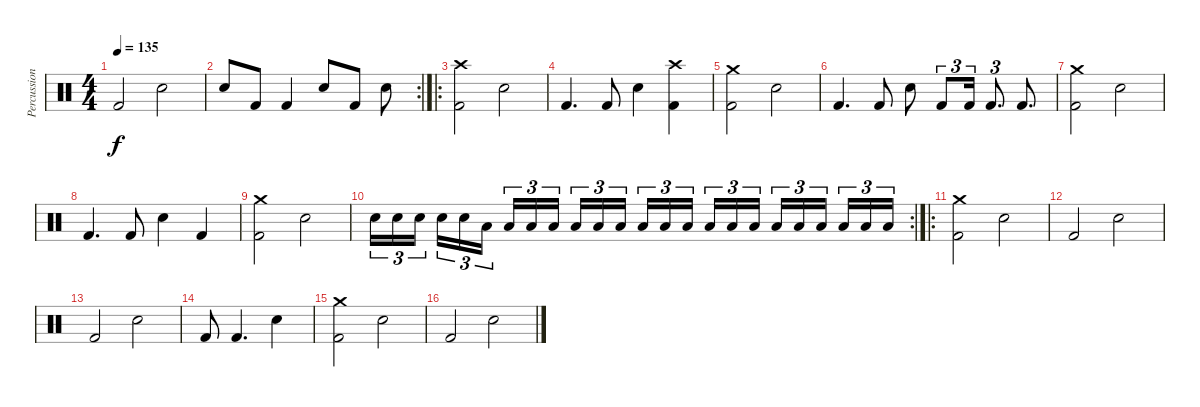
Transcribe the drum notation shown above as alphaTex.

\track ("Percussion" "Percussion") {instrument percussion}
\staff {score}
\articulation defaults
\ts (4 4)
\tempo 135
\clef neutral
\ks c "Kick (hit) 2".2{dy f} "Snare (hit) 2".2
|
\rc 2 "Snare (hit) 2".8 "Kick (hit) 2".8 "Kick (hit) 2".4 "Snare (hit) 2".8 "Kick (hit) 2".8 "Snare (hit) 2".8
|
\ro
("Crash high (hit)" "Kick (hit) 2").2 "Snare (hit) 2".2 |
"Kick (hit) 2".4{d} "Kick (hit) 2".8 "Snare (hit) 2".4 ("Crash high (hit)" "Kick (hit) 2").4 |
("Crash medium (hit)" "Kick (hit) 2").2 "Snare (hit) 2".2 |
"Kick (hit) 2".4{d} "Kick (hit) 2".8 "Snare (hit) 2".8 "Kick (hit) 2".8{tu (3 2)} "Kick (hit) 2".16{tu (3 2)} "Kick (hit) 2".8{d tu (3 2)} "Kick (hit) 2".8{d} |
("Crash medium (hit)" "Kick (hit) 2").2 "Snare (hit) 2".2 |
"Kick (hit) 2".4{d} "Kick (hit) 2".8 "Snare (hit) 2".4 "Kick (hit) 2".4 |
("Crash medium (hit)" "Kick (hit) 2").2 "Snare (hit) 2".2 |
\rc 2 "Snare (hit) 2".16{tu (3 2)} "Snare (hit) 2".16{tu (3 2)} "Snare (hit) 2".16{tu (3 2) beam splitsecondary} "Snare (hit) 2".16{tu (3 2)} "Snare (hit) 2".16{tu (3 2)} "Low Tom (hit)".16{tu (3 2)} "Low Tom (hit)".16{tu (3 2)} "Low Tom (hit)".16{tu (3 2)} "Low Tom (hit)".16{tu (3 2) beam splitsecondary} "Low Tom (hit)".16{tu (3 2)} "Low Floor Tom (hit)".16{tu (3 2)} "Low Floor Tom (hit)".16{tu (3 2)} "Low Floor Tom (hit)".16{tu (3 2)} "Low Floor Tom (hit)".16{tu (3 2)} "Low Floor Tom (hit)".16{tu (3 2) beam splitsecondary} "Low Floor Tom (hit)".16{tu (3 2)} "Low Floor Tom (hit)".16{tu (3 2)} "Low Floor Tom (hit)".16{tu (3 2)} "Low Floor Tom (hit)".16{tu (3 2)} "Low Floor Tom (hit)".16{tu (3 2)} "Low Floor Tom (hit)".16{tu (3 2) beam splitsecondary} "Low Floor Tom (hit)".16{tu (3 2)} "Low Floor Tom (hit)".16{tu (3 2)} "Low Floor Tom (hit)".16{tu (3 2)}
|
\ro
("Crash medium (hit)" "Kick (hit) 2").2 "Snare (hit) 2".2 |
"Kick (hit) 2".2 "Snare (hit) 2".2 |
"Kick (hit) 2".2 "Snare (hit) 2".2 |
"Kick (hit) 2".8 "Kick (hit) 2".4{d} "Snare (hit) 2".4 |
("Crash medium (hit)" "Kick (hit) 2").2 "Snare (hit) 2".2 |
"Kick (hit) 2".2 "Snare (hit) 2".2
